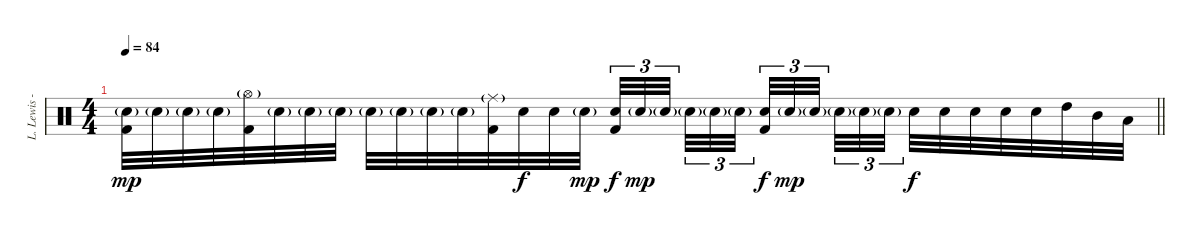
\track ("L. Lewis - Drums" "L. Lewis -") {instrument percussion}
\staff {score}
\articulation defaults
\ts (4 4)
\tempo 84
\clef neutral
\barLineRight lightlight
\ks c
("Electric Snare (hit)"{g} "Kick (hit) 2").32{dy mp} "Electric Snare (hit)"{g}.32 "Electric Snare (hit)"{g}.32 "Electric Snare (hit)"{g}.32 ("Hi-Hat (open)"{g} "Kick (hit) 2").32 "Electric Snare (hit)"{g}.32 "Electric Snare (hit)"{g}.32 "Electric Snare (hit)"{g}.32 "Electric Snare (hit)"{g}.32 "Electric Snare (hit)"{g}.32 "Electric Snare (hit)"{g}.32 "Electric Snare (hit)"{g}.32 ("Ride (middle)"{g} "Kick (hit) 2").32 "Electric Snare (hit)".32{dy f} "Electric Snare (hit)".32 "Electric Snare (hit)"{g}.32{dy mp} ("Electric Snare (hit)" "Kick (hit) 2").32{tu (3 2) dy f} "Electric Snare (hit)"{g}.32{tu (3 2) dy mp} "Electric Snare (hit)"{g}.32{tu (3 2) beam splitsecondary} "Electric Snare (hit)"{g}.32{tu (3 2)} "Electric Snare (hit)"{g}.32{tu (3 2)} "Electric Snare (hit)"{g}.32{tu (3 2) beam splitsecondary} ("Electric Snare (hit)" "Kick (hit) 2").32{tu (3 2) dy f} "Electric Snare (hit)"{g}.32{tu (3 2) dy mp} "Electric Snare (hit)"{g}.32{tu (3 2) beam splitsecondary} "Electric Snare (hit)"{g}.32{tu (3 2)} "Electric Snare (hit)"{g}.32{tu (3 2)} "Electric Snare (hit)"{g}.32{tu (3 2)} "Electric Snare (hit)".32{dy f} "Electric Snare (hit)".32 "Electric Snare (hit)".32 "Electric Snare (hit)".32 "Electric Snare (hit)".32 "High Tom (hit)".32 "Mid Tom (hit)".32 "Low Tom (hit)".32
